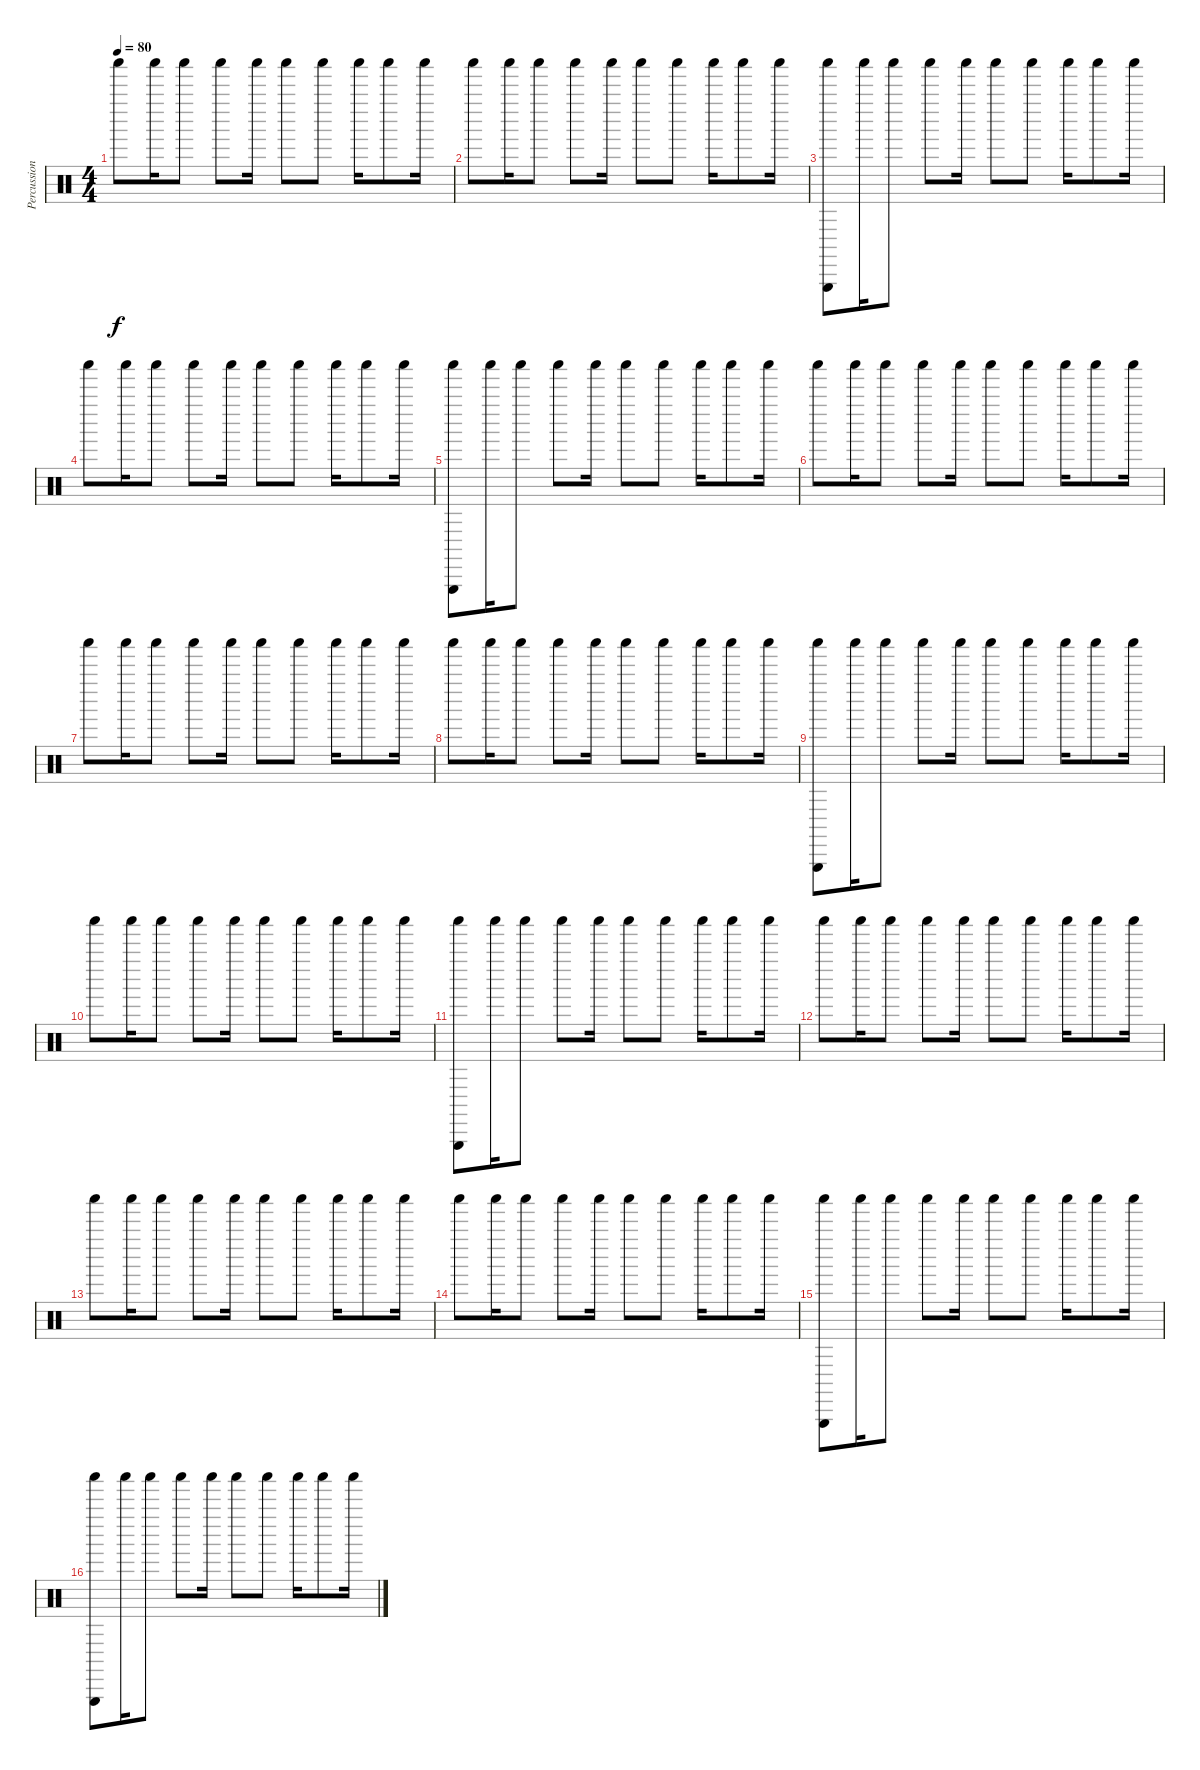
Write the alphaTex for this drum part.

\track ("Percussion" "Percussion") {instrument percussion}
\staff {score}
\articulation defaults
\ts (4 4)
\tempo 80
\clef neutral
\ks c "Shaker (hit)".8{dy f} "Shaker (hit)".16 "Shaker (hit)".8 "Shaker (hit)".8 "Shaker (hit)".16 "Shaker (hit)".8 "Shaker (hit)".8 "Shaker (hit)".16 "Shaker (hit)".8 "Shaker (hit)".16
|
"Shaker (hit)".8 "Shaker (hit)".16 "Shaker (hit)".8 "Shaker (hit)".8 "Shaker (hit)".16 "Shaker (hit)".8 "Shaker (hit)".8 "Shaker (hit)".16 "Shaker (hit)".8 "Shaker (hit)".16 |
("Shaker (hit)" "Triangle (hit)").8 "Shaker (hit)".16 "Shaker (hit)".8 "Shaker (hit)".8 "Shaker (hit)".16 "Shaker (hit)".8 "Shaker (hit)".8 "Shaker (hit)".16 "Shaker (hit)".8 "Shaker (hit)".16 |
"Shaker (hit)".8 "Shaker (hit)".16 "Shaker (hit)".8 "Shaker (hit)".8 "Shaker (hit)".16 "Shaker (hit)".8 "Shaker (hit)".8 "Shaker (hit)".16 "Shaker (hit)".8 "Shaker (hit)".16 |
("Shaker (hit)" "Triangle (hit)").8 "Shaker (hit)".16 "Shaker (hit)".8 "Shaker (hit)".8 "Shaker (hit)".16 "Shaker (hit)".8 "Shaker (hit)".8 "Shaker (hit)".16 "Shaker (hit)".8 "Shaker (hit)".16 |
"Shaker (hit)".8 "Shaker (hit)".16 "Shaker (hit)".8 "Shaker (hit)".8 "Shaker (hit)".16 "Shaker (hit)".8 "Shaker (hit)".8 "Shaker (hit)".16 "Shaker (hit)".8 "Shaker (hit)".16 |
"Shaker (hit)".8 "Shaker (hit)".16 "Shaker (hit)".8 "Shaker (hit)".8 "Shaker (hit)".16 "Shaker (hit)".8 "Shaker (hit)".8 "Shaker (hit)".16 "Shaker (hit)".8 "Shaker (hit)".16 |
"Shaker (hit)".8 "Shaker (hit)".16 "Shaker (hit)".8 "Shaker (hit)".8 "Shaker (hit)".16 "Shaker (hit)".8 "Shaker (hit)".8 "Shaker (hit)".16 "Shaker (hit)".8 "Shaker (hit)".16 |
("Shaker (hit)" "Triangle (hit)").8 "Shaker (hit)".16 "Shaker (hit)".8 "Shaker (hit)".8 "Shaker (hit)".16 "Shaker (hit)".8 "Shaker (hit)".8 "Shaker (hit)".16 "Shaker (hit)".8 "Shaker (hit)".16 |
"Shaker (hit)".8 "Shaker (hit)".16 "Shaker (hit)".8 "Shaker (hit)".8 "Shaker (hit)".16 "Shaker (hit)".8 "Shaker (hit)".8 "Shaker (hit)".16 "Shaker (hit)".8 "Shaker (hit)".16 |
("Shaker (hit)" "Triangle (hit)").8 "Shaker (hit)".16 "Shaker (hit)".8 "Shaker (hit)".8 "Shaker (hit)".16 "Shaker (hit)".8 "Shaker (hit)".8 "Shaker (hit)".16 "Shaker (hit)".8 "Shaker (hit)".16 |
"Shaker (hit)".8 "Shaker (hit)".16 "Shaker (hit)".8 "Shaker (hit)".8 "Shaker (hit)".16 "Shaker (hit)".8 "Shaker (hit)".8 "Shaker (hit)".16 "Shaker (hit)".8 "Shaker (hit)".16 |
"Shaker (hit)".8 "Shaker (hit)".16 "Shaker (hit)".8 "Shaker (hit)".8 "Shaker (hit)".16 "Shaker (hit)".8 "Shaker (hit)".8 "Shaker (hit)".16 "Shaker (hit)".8 "Shaker (hit)".16 |
"Shaker (hit)".8 "Shaker (hit)".16 "Shaker (hit)".8 "Shaker (hit)".8 "Shaker (hit)".16 "Shaker (hit)".8 "Shaker (hit)".8 "Shaker (hit)".16 "Shaker (hit)".8 "Shaker (hit)".16 |
("Shaker (hit)" "Triangle (hit)").8 "Shaker (hit)".16 "Shaker (hit)".8 "Shaker (hit)".8 "Shaker (hit)".16 "Shaker (hit)".8 "Shaker (hit)".8 "Shaker (hit)".16 "Shaker (hit)".8 "Shaker (hit)".16 |
("Shaker (hit)" "Triangle (hit)").8 "Shaker (hit)".16 "Shaker (hit)".8 "Shaker (hit)".8 "Shaker (hit)".16 "Shaker (hit)".8 "Shaker (hit)".8 "Shaker (hit)".16 "Shaker (hit)".8 "Shaker (hit)".16
